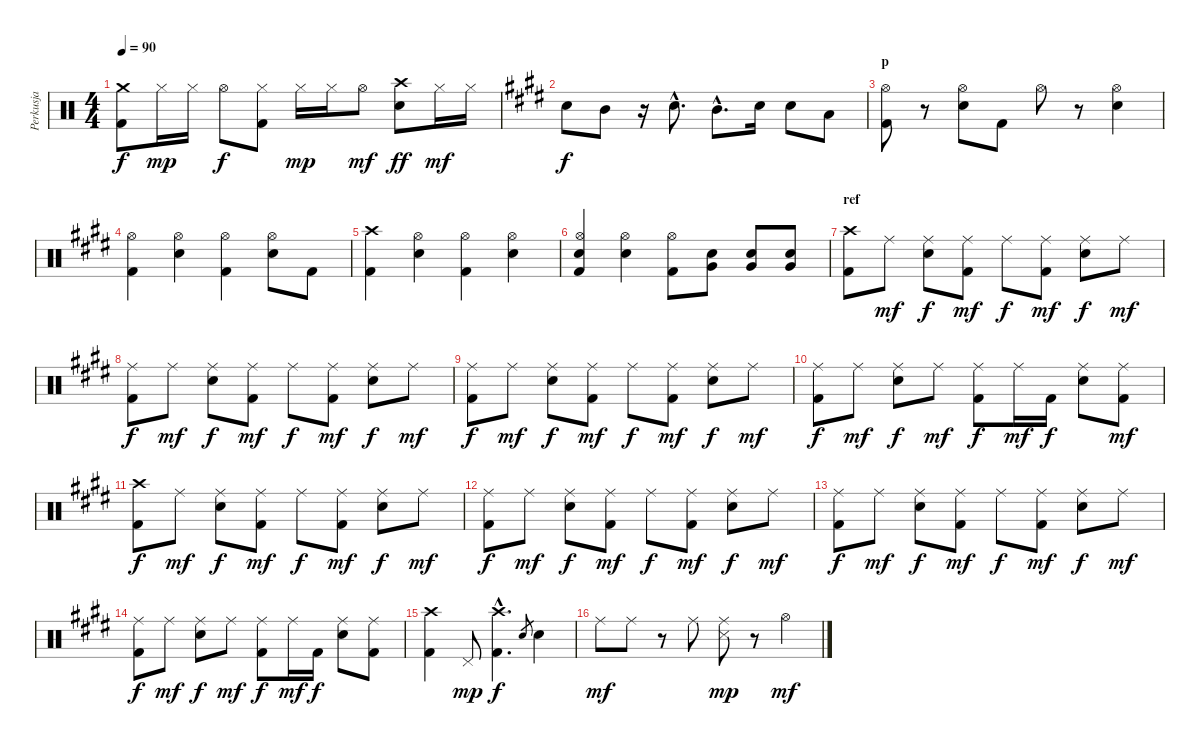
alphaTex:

\track ("Perkusja" "Perkusja") {instrument percussion}
\staff {score}
\articulation defaults
\ts (4 4)
\tempo 90
\clef neutral
\ks c
("Crash medium (hit)" "Kick (hit) 2").8{dy f} "Hi-Hat (closed)".16{dy mp} "Hi-Hat (closed)".16 "Hi-Hat (open)".8{dy f} ("Hi-Hat (closed)" "Kick (hit) 2").8 "Hi-Hat (closed)".16{dy mp} "Hi-Hat (closed)".16 "Hi-Hat (open)".8{dy mf} ("Crash high (hit)" "Snare (hit) 2").8{dy ff} "Hi-Hat (closed)".16{dy mf} "Hi-Hat (closed)".16 |
\ks e "Snare (hit) 2".8{dy f} "Mid Tom (hit)".8
r.16 "Snare (hit) 2"{hac}.8{d} "Mid Tom (hit)"{hac}.8{d} "Snare (hit) 2".16 "Snare (hit) 2".8 "Low Tom (hit)".8 |
\section ("" "p")
("Hi-Hat (open)" "Kick (hit) 2").8 r.8 ("Hi-Hat (open)" "Snare (hit) 2").8 "Kick (hit) 2".8 "Hi-Hat (open)".8 r.8 ("Hi-Hat (open)" "Snare (hit) 2").4 |
("Hi-Hat (open)" "Kick (hit) 2").4 ("Hi-Hat (open)" "Snare (hit) 2").4 ("Hi-Hat (open)" "Kick (hit) 2").4 ("Hi-Hat (open)" "Snare (hit) 2").8 "Kick (hit) 2".8 |
("Crash high (hit)" "Kick (hit) 2").4 ("Hi-Hat (open)" "Snare (hit) 2").4 ("Hi-Hat (open)" "Kick (hit) 2").4 ("Hi-Hat (open)" "Snare (hit) 2").4 |
("Hi-Hat (open)" "Snare (hit)" "Kick (hit) 2").4 ("Hi-Hat (open)" "Snare (hit) 2").4 ("Hi-Hat (open)" "Kick (hit) 2").8 ("Snare (hit) 2" "Very Low Tom (hit)").8 ("Snare (hit) 2" "Very Low Tom (hit)").8 ("Snare (hit) 2" "Very Low Tom (hit)").8 |
\section ("" "ref")
("Crash high (hit)" "Kick (hit) 2").8 "Ride (middle)".8{dy mf} ("Ride (middle)" "Snare (hit) 2").8{dy f} ("Ride (middle)" "Kick (hit) 2").8{dy mf} "Ride (middle)".8{dy f} ("Ride (middle)" "Kick (hit) 2").8{dy mf} ("Ride (middle)" "Snare (hit) 2").8{dy f} "Ride (middle)".8{dy mf} |
("Ride (middle)" "Kick (hit) 2").8{dy f} "Ride (middle)".8{dy mf} ("Ride (middle)" "Snare (hit) 2").8{dy f} ("Ride (middle)" "Kick (hit) 2").8{dy mf} "Ride (middle)".8{dy f} ("Ride (middle)" "Kick (hit) 2").8{dy mf} ("Ride (middle)" "Snare (hit) 2").8{dy f} "Ride (middle)".8{dy mf} |
("Ride (middle)" "Kick (hit) 2").8{dy f} "Ride (middle)".8{dy mf} ("Ride (middle)" "Snare (hit) 2").8{dy f} ("Ride (middle)" "Kick (hit) 2").8{dy mf} "Ride (middle)".8{dy f} ("Ride (middle)" "Kick (hit) 2").8{dy mf} ("Ride (middle)" "Snare (hit) 2").8{dy f} "Ride (middle)".8{dy mf} |
("Ride (middle)" "Kick (hit) 2").8{dy f} "Ride (middle)".8{dy mf} ("Ride (middle)" "Snare (hit) 2").8{dy f} "Ride (middle)".8{dy mf} ("Ride (middle)" "Kick (hit) 2").8{dy f} "Ride (middle)".16{dy mf} "Kick (hit) 2".16{dy f} ("Ride (middle)" "Snare (hit) 2").8 ("Ride (middle)" "Kick (hit) 2").8{dy mf} |
("Crash high (hit)" "Kick (hit) 2").8{dy f} "Ride (middle)".8{dy mf} ("Ride (middle)" "Snare (hit) 2").8{dy f} ("Ride (middle)" "Kick (hit) 2").8{dy mf} "Ride (middle)".8{dy f} ("Ride (middle)" "Kick (hit) 2").8{dy mf} ("Ride (middle)" "Snare (hit) 2").8{dy f} "Ride (middle)".8{dy mf} |
("Ride (middle)" "Kick (hit) 2").8{dy f} "Ride (middle)".8{dy mf} ("Ride (middle)" "Snare (hit) 2").8{dy f} ("Ride (middle)" "Kick (hit) 2").8{dy mf} "Ride (middle)".8{dy f} ("Ride (middle)" "Kick (hit) 2").8{dy mf} ("Ride (middle)" "Snare (hit) 2").8{dy f} "Ride (middle)".8{dy mf} |
("Ride (middle)" "Kick (hit) 2").8{dy f} "Ride (middle)".8{dy mf} ("Ride (middle)" "Snare (hit) 2").8{dy f} ("Ride (middle)" "Kick (hit) 2").8{dy mf} "Ride (middle)".8{dy f} ("Ride (middle)" "Kick (hit) 2").8{dy mf} ("Ride (middle)" "Snare (hit) 2").8{dy f} "Ride (middle)".8{dy mf} |
("Ride (middle)" "Kick (hit) 2").8{dy f} "Ride (middle)".8{dy mf} ("Ride (middle)" "Snare (hit) 2").8{dy f} "Ride (middle)".8{dy mf} ("Ride (middle)" "Kick (hit) 2").8{dy f} "Ride (middle)".16{dy mf} "Kick (hit) 2".16{dy f} ("Ride (middle)" "Snare (hit) 2").8 ("Ride (middle)" "Kick (hit) 2").8 |
("Crash high (hit)" "Kick (hit) 2").4 "Pedal Hi-Hat (hit)".8{dy mp} ("Crash high (hit)"{hac} "Kick (hit) 2"{hac}).4{d dy f} "Snare (hit) 2".8{gr} "Snare (hit) 2".4 |
"Ride (middle)".8{dy mf} "Ride (middle)".8 r.8 "Ride (middle)".8 ("Ride (middle)" "Snare (side stick) 3").8{dy mp} r.8 "Hi-Hat (open)".4{dy mf}
